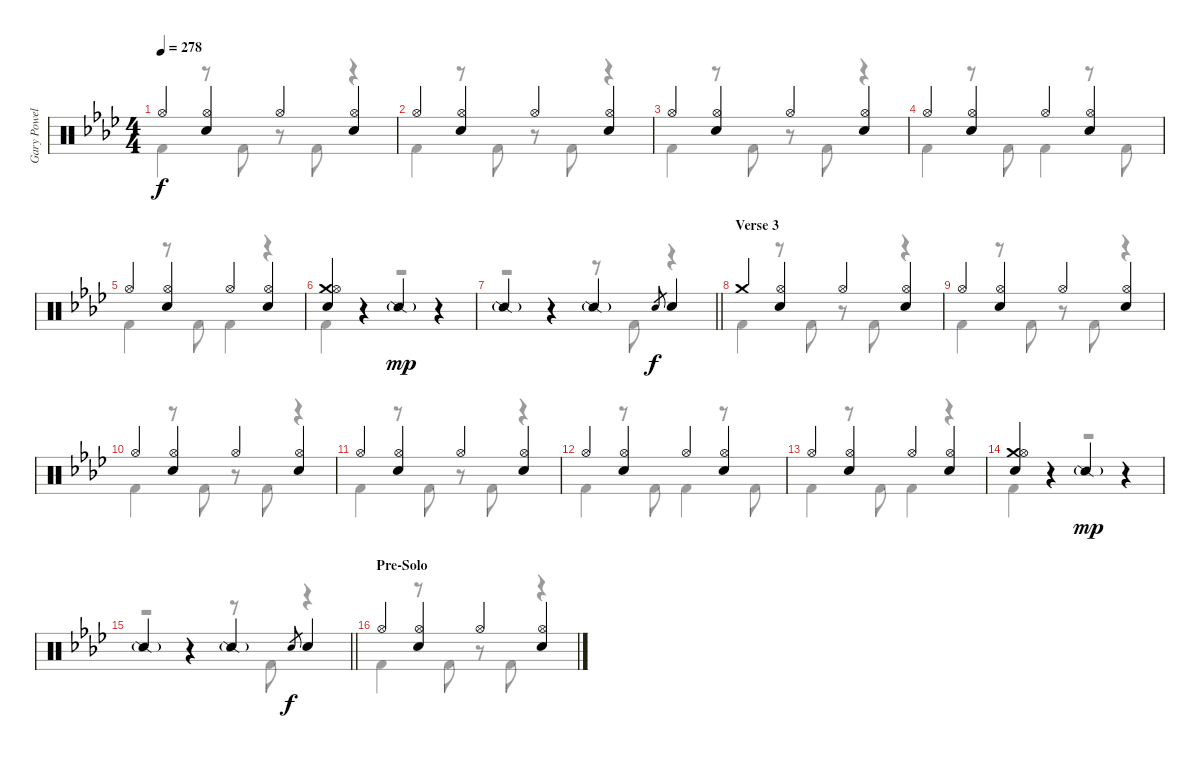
\track ("Gary Powell" "Gary Powel") {instrument percussion}
\staff {score}
\articulation defaults
\voice
\ts (4 4)
\tempo 278
\clef neutral
\ks ab "Hi-Hat (open)".4{dy f}
("Hi-Hat (open)" "Electric Snare (hit)").4 "Hi-Hat (open)".4 ("Hi-Hat (open)" "Electric Snare (hit)").4 |
"Hi-Hat (open)".4 ("Hi-Hat (open)" "Electric Snare (hit)").4 "Hi-Hat (open)".4 ("Hi-Hat (open)" "Electric Snare (hit)").4 |
"Hi-Hat (open)".4 ("Hi-Hat (open)" "Electric Snare (hit)").4 "Hi-Hat (open)".4 ("Hi-Hat (open)" "Electric Snare (hit)").4 |
"Hi-Hat (open)".4 ("Hi-Hat (open)" "Electric Snare (hit)").4 "Hi-Hat (open)".4 ("Hi-Hat (open)" "Electric Snare (hit)").4 |
"Hi-Hat (open)".4 ("Hi-Hat (open)" "Electric Snare (hit)").4 "Hi-Hat (open)".4 ("Hi-Hat (open)" "Electric Snare (hit)").4 |
("Crash medium (hit)" "Hi-Hat (open)" "Electric Snare (hit)").4 r.4 "Snare (side stick) 2"{g}.4{dy mp} r.4 |
\barLineRight lightlight "Snare (side stick) 2"{g}.4
r.4 "Snare (side stick) 2"{g}.4 "Electric Snare (hit)".8{gr dy f} "Electric Snare (hit)".4 |
\section ("" "Verse 3")
"Crash medium (hit)".4 ("Hi-Hat (open)" "Electric Snare (hit)").4 "Hi-Hat (open)".4 ("Hi-Hat (open)" "Electric Snare (hit)").4 |
"Hi-Hat (open)".4 ("Hi-Hat (open)" "Electric Snare (hit)").4 "Hi-Hat (open)".4 ("Hi-Hat (open)" "Electric Snare (hit)").4 |
"Hi-Hat (open)".4 ("Hi-Hat (open)" "Electric Snare (hit)").4 "Hi-Hat (open)".4 ("Hi-Hat (open)" "Electric Snare (hit)").4 |
"Hi-Hat (open)".4 ("Hi-Hat (open)" "Electric Snare (hit)").4 "Hi-Hat (open)".4 ("Hi-Hat (open)" "Electric Snare (hit)").4 |
"Hi-Hat (open)".4 ("Hi-Hat (open)" "Electric Snare (hit)").4 "Hi-Hat (open)".4 ("Hi-Hat (open)" "Electric Snare (hit)").4 |
"Hi-Hat (open)".4 ("Hi-Hat (open)" "Electric Snare (hit)").4 "Hi-Hat (open)".4 ("Hi-Hat (open)" "Electric Snare (hit)").4 |
("Crash medium (hit)" "Hi-Hat (open)" "Electric Snare (hit)").4 r.4 "Snare (side stick) 2"{g}.4{dy mp} r.4 |
\barLineRight lightlight "Snare (side stick) 2"{g}.4
r.4 "Snare (side stick) 2"{g}.4 "Electric Snare (hit)".8{gr dy f} "Electric Snare (hit)".4 |
\section ("" "Pre-Solo")
"Hi-Hat (open)".4 ("Hi-Hat (open)" "Electric Snare (hit)").4 "Hi-Hat (open)".4 ("Hi-Hat (open)" "Electric Snare (hit)").4
\voice
\clef neutral
\ottava regular
\simile none
\ks ab "Kick (hit) 2".4{dy f}
r.8 "Kick (hit) 2".8 r.8 "Kick (hit) 2".8 r.4 |
"Kick (hit) 2".4 r.8 "Kick (hit) 2".8 r.8 "Kick (hit) 2".8 r.4 |
"Kick (hit) 2".4 r.8 "Kick (hit) 2".8 r.8 "Kick (hit) 2".8 r.4 |
"Kick (hit) 2".4 r.8 "Kick (hit) 2".8 "Kick (hit) 2".4 r.8 "Kick (hit) 2".8 |
"Kick (hit) 2".4 r.8 "Kick (hit) 2".8 "Kick (hit) 2".4 r.4 |
"Kick (hit) 2".4 r.4 r.2 |
\barLineRight lightlight
r.2 r.8 "Kick (hit) 2".8 r.4 |
"Kick (hit) 2".4 r.8 "Kick (hit) 2".8 r.8 "Kick (hit) 2".8 r.4 |
"Kick (hit) 2".4 r.8 "Kick (hit) 2".8 r.8 "Kick (hit) 2".8 r.4 |
"Kick (hit) 2".4 r.8 "Kick (hit) 2".8 r.8 "Kick (hit) 2".8 r.4 |
"Kick (hit) 2".4 r.8 "Kick (hit) 2".8 r.8 "Kick (hit) 2".8 r.4 |
"Kick (hit) 2".4 r.8 "Kick (hit) 2".8 "Kick (hit) 2".4 r.8 "Kick (hit) 2".8 |
"Kick (hit) 2".4 r.8 "Kick (hit) 2".8 "Kick (hit) 2".4 r.4 |
"Kick (hit) 2".4 r.4 r.2 |
\barLineRight lightlight
r.2 r.8 "Kick (hit) 2".8 r.4 |
"Kick (hit) 2".4 r.8 "Kick (hit) 2".8 r.8 "Kick (hit) 2".8 r.4
